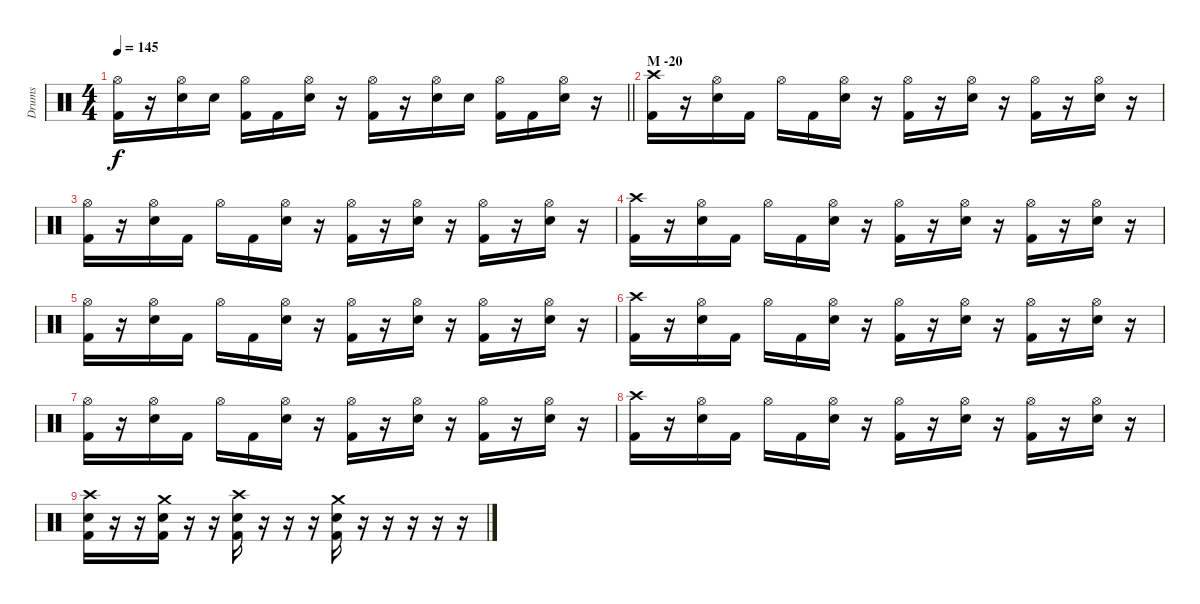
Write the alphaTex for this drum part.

\track ("Drums" "Drums") {instrument percussion}
\staff {score}
\articulation defaults
\ts (4 4)
\tempo 145
\clef neutral
\barLineRight lightlight
\ks c
("Hi-Hat (open)" "Kick (hit) 2").16{dy f} r.16 ("Hi-Hat (open)" "Electric Snare (hit)").16 "Electric Snare (hit)".16 ("Hi-Hat (open)" "Kick (hit) 2").16 "Kick (hit) 2".16 ("Hi-Hat (open)" "Electric Snare (hit)").16 r.16 ("Hi-Hat (open)" "Kick (hit) 2").16 r.16 ("Hi-Hat (open)" "Electric Snare (hit)").16 "Electric Snare (hit)".16 ("Hi-Hat (open)" "Kick (hit) 2").16 "Kick (hit) 2".16 ("Hi-Hat (open)" "Electric Snare (hit)").16 r.16 |
\section ("" "M -20")
("Crash high (hit)" "Kick (hit) 2").16 r.16 ("Hi-Hat (open)" "Electric Snare (hit)").16 "Kick (hit) 2".16 "Hi-Hat (open)".16 "Kick (hit) 2".16 ("Hi-Hat (open)" "Electric Snare (hit)").16 r.16 ("Hi-Hat (open)" "Kick (hit) 2").16 r.16 ("Hi-Hat (open)" "Electric Snare (hit)").16 r.16 ("Hi-Hat (open)" "Kick (hit) 2").16 r.16 ("Hi-Hat (open)" "Electric Snare (hit)").16 r.16 |
("Hi-Hat (open)" "Kick (hit) 2").16 r.16 ("Hi-Hat (open)" "Electric Snare (hit)").16 "Kick (hit) 2".16 "Hi-Hat (open)".16 "Kick (hit) 2".16 ("Hi-Hat (open)" "Electric Snare (hit)").16 r.16 ("Hi-Hat (open)" "Kick (hit) 2").16 r.16 ("Hi-Hat (open)" "Electric Snare (hit)").16 r.16 ("Hi-Hat (open)" "Kick (hit) 2").16 r.16 ("Hi-Hat (open)" "Electric Snare (hit)").16 r.16 |
("Crash high (hit)" "Kick (hit) 2").16 r.16 ("Hi-Hat (open)" "Electric Snare (hit)").16 "Kick (hit) 2".16 "Hi-Hat (open)".16 "Kick (hit) 2".16 ("Hi-Hat (open)" "Electric Snare (hit)").16 r.16 ("Hi-Hat (open)" "Kick (hit) 2").16 r.16 ("Hi-Hat (open)" "Electric Snare (hit)").16 r.16 ("Hi-Hat (open)" "Kick (hit) 2").16 r.16 ("Hi-Hat (open)" "Electric Snare (hit)").16 r.16 |
("Hi-Hat (open)" "Kick (hit) 2").16 r.16 ("Hi-Hat (open)" "Electric Snare (hit)").16 "Kick (hit) 2".16 "Hi-Hat (open)".16 "Kick (hit) 2".16 ("Hi-Hat (open)" "Electric Snare (hit)").16 r.16 ("Hi-Hat (open)" "Kick (hit) 2").16 r.16 ("Hi-Hat (open)" "Electric Snare (hit)").16 r.16 ("Hi-Hat (open)" "Kick (hit) 2").16 r.16 ("Hi-Hat (open)" "Electric Snare (hit)").16 r.16 |
("Crash high (hit)" "Kick (hit) 2").16 r.16 ("Hi-Hat (open)" "Electric Snare (hit)").16 "Kick (hit) 2".16 "Hi-Hat (open)".16 "Kick (hit) 2".16 ("Hi-Hat (open)" "Electric Snare (hit)").16 r.16 ("Hi-Hat (open)" "Kick (hit) 2").16 r.16 ("Hi-Hat (open)" "Electric Snare (hit)").16 r.16 ("Hi-Hat (open)" "Kick (hit) 2").16 r.16 ("Hi-Hat (open)" "Electric Snare (hit)").16 r.16 |
("Hi-Hat (open)" "Kick (hit) 2").16 r.16 ("Hi-Hat (open)" "Electric Snare (hit)").16 "Kick (hit) 2".16 "Hi-Hat (open)".16 "Kick (hit) 2".16 ("Hi-Hat (open)" "Electric Snare (hit)").16 r.16 ("Hi-Hat (open)" "Kick (hit) 2").16 r.16 ("Hi-Hat (open)" "Electric Snare (hit)").16 r.16 ("Hi-Hat (open)" "Kick (hit) 2").16 r.16 ("Hi-Hat (open)" "Electric Snare (hit)").16 r.16 |
("Crash high (hit)" "Kick (hit) 2").16 r.16 ("Hi-Hat (open)" "Electric Snare (hit)").16 "Kick (hit) 2".16 "Hi-Hat (open)".16 "Kick (hit) 2".16 ("Hi-Hat (open)" "Electric Snare (hit)").16 r.16 ("Hi-Hat (open)" "Kick (hit) 2").16 r.16 ("Hi-Hat (open)" "Electric Snare (hit)").16 r.16 ("Hi-Hat (open)" "Kick (hit) 2").16 r.16 ("Hi-Hat (open)" "Electric Snare (hit)").16 r.16 |
("Crash high (hit)" "Electric Snare (hit)" "Kick (hit) 2").16 r.16 r.16 ("Crash medium (hit)" "Electric Snare (hit)" "Kick (hit) 2").16 r.16 r.16 ("Crash high (hit)" "Electric Snare (hit)" "Kick (hit) 2").16 r.16 r.16 r.16 ("Crash medium (hit)" "Electric Snare (hit)" "Kick (hit) 2").16 r.16 r.16 r.16 r.16 r.16
